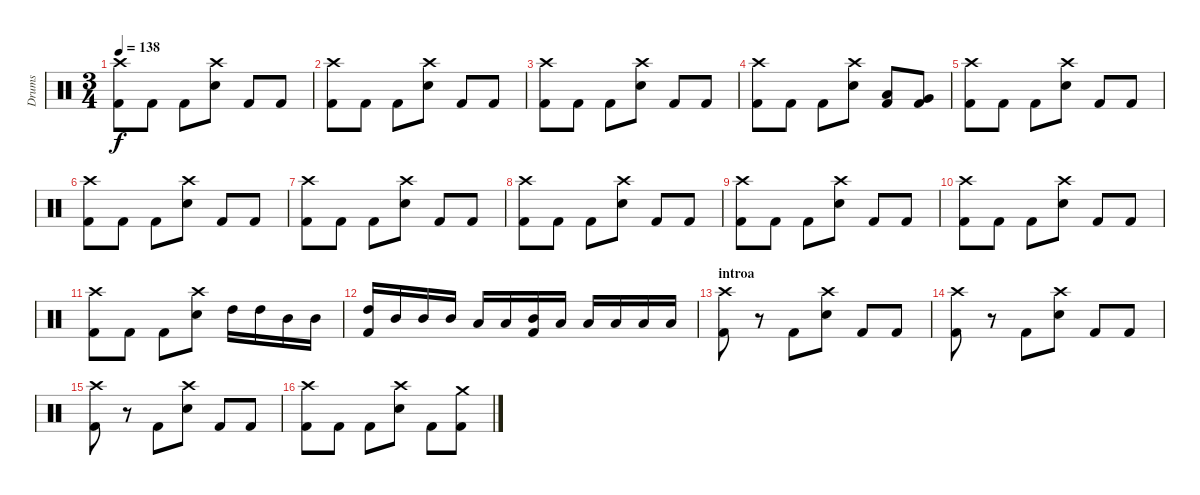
\track ("Drums" "Drums") {instrument percussion}
\staff {score}
\articulation defaults
\ts (3 4)
\tempo 138
\clef neutral
\ks c
("Crash high (hit)" "Kick (hit) 2").8{dy f} "Kick (hit) 2".8 "Kick (hit) 2".8 ("Crash high (hit)" "Snare (hit) 2").8 "Kick (hit) 2".8 "Kick (hit) 2".8 |
("Crash high (hit)" "Kick (hit) 2").8 "Kick (hit) 2".8 "Kick (hit) 2".8 ("Crash high (hit)" "Snare (hit) 2").8 "Kick (hit) 2".8 "Kick (hit) 2".8 |
("Crash high (hit)" "Kick (hit) 2").8 "Kick (hit) 2".8 "Kick (hit) 2".8 ("Crash high (hit)" "Snare (hit) 2").8 "Kick (hit) 2".8 "Kick (hit) 2".8 |
("Crash high (hit)" "Kick (hit) 2").8 "Kick (hit) 2".8 "Kick (hit) 2".8 ("Crash high (hit)" "Snare (hit) 2").8 ("Low Tom (hit)" "Kick (hit) 2").8 ("Very Low Tom (hit)" "Kick (hit) 2").8 |
("Crash high (hit)" "Kick (hit) 2").8 "Kick (hit) 2".8 "Kick (hit) 2".8 ("Crash high (hit)" "Snare (hit) 2").8 "Kick (hit) 2".8 "Kick (hit) 2".8 |
("Crash high (hit)" "Kick (hit) 2").8 "Kick (hit) 2".8 "Kick (hit) 2".8 ("Crash high (hit)" "Snare (hit) 2").8 "Kick (hit) 2".8 "Kick (hit) 2".8 |
("Crash high (hit)" "Kick (hit) 2").8 "Kick (hit) 2".8 "Kick (hit) 2".8 ("Crash high (hit)" "Snare (hit) 2").8 "Kick (hit) 2".8 "Kick (hit) 2".8 |
("Crash high (hit)" "Kick (hit) 2").8 "Kick (hit) 2".8 "Kick (hit) 2".8 ("Crash high (hit)" "Snare (hit) 2").8 "Kick (hit) 2".8 "Kick (hit) 2".8 |
("Crash high (hit)" "Kick (hit) 2").8 "Kick (hit) 2".8 "Kick (hit) 2".8 ("Crash high (hit)" "Snare (hit) 2").8 "Kick (hit) 2".8 "Kick (hit) 2".8 |
("Crash high (hit)" "Kick (hit) 2").8 "Kick (hit) 2".8 "Kick (hit) 2".8 ("Crash high (hit)" "Snare (hit) 2").8 "Kick (hit) 2".8 "Kick (hit) 2".8 |
("Crash high (hit)" "Kick (hit) 2").8 "Kick (hit) 2".8 "Kick (hit) 2".8 ("Crash high (hit)" "Snare (hit) 2").8 "High Tom (hit)".16 "High Tom (hit)".16 "Mid Tom (hit)".16 "Mid Tom (hit)".16 |
("High Tom (hit)" "Kick (hit) 2").16 "Mid Tom (hit)".16 "Mid Tom (hit)".16 "Mid Tom (hit)".16 "Low Tom (hit)".16 "Low Tom (hit)".16 ("Mid Tom (hit)" "Kick (hit) 2").16 "Low Tom (hit)".16 "Low Tom (hit)".16 "Low Tom (hit)".16 "Low Floor Tom (hit)".16 "Low Floor Tom (hit)".16 |
\section ("" "introa")
("Crash high (hit)" "Kick (hit) 2").8 r.8 "Kick (hit) 2".8 ("Crash high (hit)" "Snare (hit) 2").8 "Kick (hit) 2".8 "Kick (hit) 2".8 |
("Crash high (hit)" "Kick (hit) 2").8 r.8 "Kick (hit) 2".8 ("Crash high (hit)" "Snare (hit) 2").8 "Kick (hit) 2".8 "Kick (hit) 2".8 |
("Crash high (hit)" "Kick (hit) 2").8 r.8 "Kick (hit) 2".8 ("Crash high (hit)" "Snare (hit) 2").8 "Kick (hit) 2".8 "Kick (hit) 2".8 |
("Crash high (hit)" "Kick (hit) 2").8 "Kick (hit) 2".8 "Kick (hit) 2".8 ("Crash high (hit)" "Snare (hit) 2").8 "Kick (hit) 2".8 ("Crash medium (hit)" "Kick (hit) 2").8
